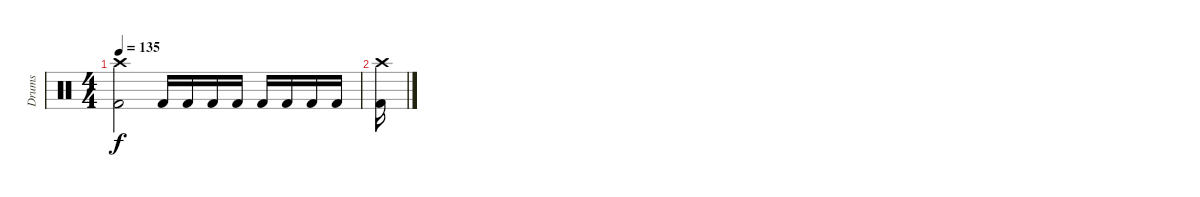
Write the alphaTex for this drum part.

\track ("Drums" "Drums") {instrument percussion}
\staff {score}
\articulation defaults
\ts (4 4)
\tempo 135
\clef neutral
\ks c
("Crash high (hit)" "Kick (hit) 2").2{dy f} "Kick (hit) 2".16 "Kick (hit) 2".16 "Kick (hit) 2".16 "Kick (hit) 2".16 "Kick (hit) 2".16 "Kick (hit) 2".16 "Kick (hit) 2".16 "Kick (hit) 2".16 |
("Crash high (hit)" "Kick (hit) 2").16
